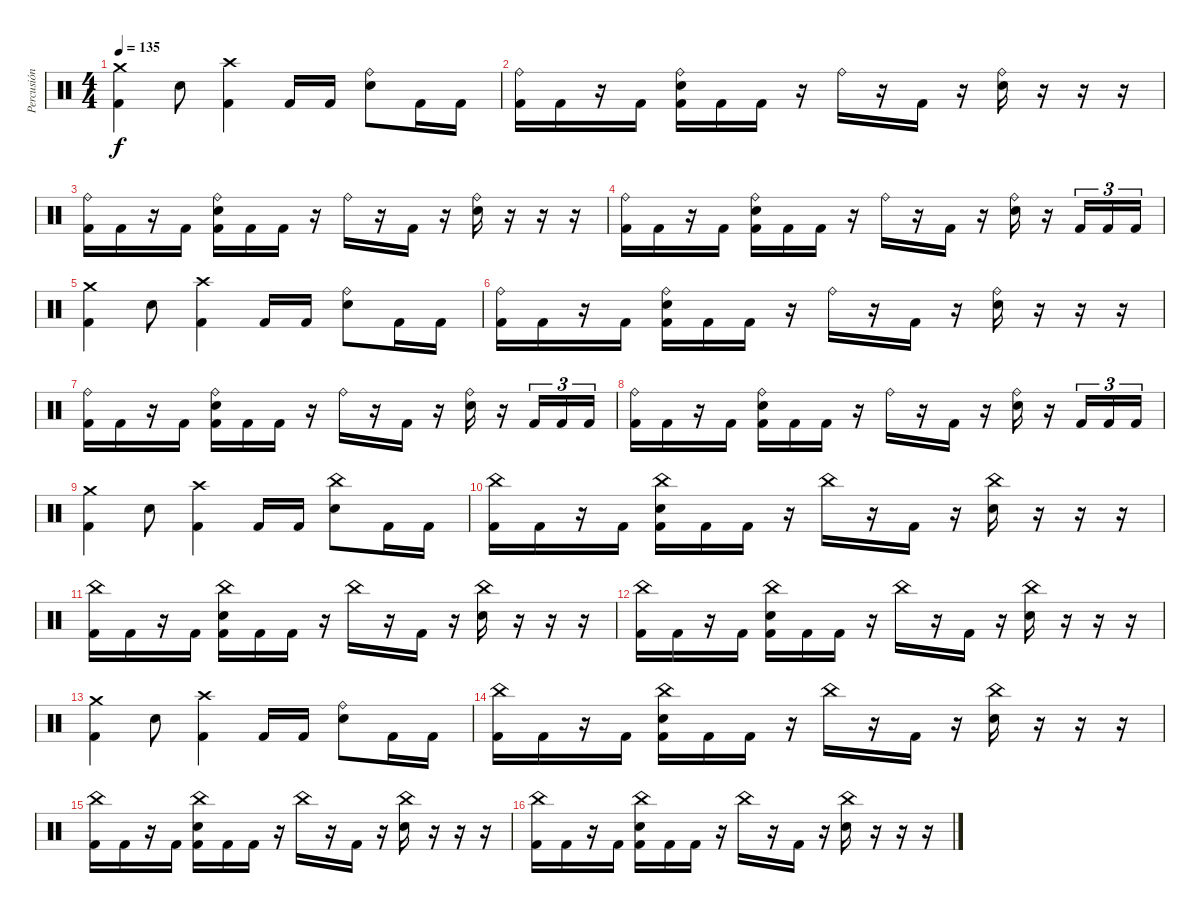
\track ("Percusión" "Percusión") {instrument percussion}
\staff {score}
\articulation defaults
\ts (4 4)
\tempo 135
\clef neutral
\ks c
("Crash medium (hit)" "Kick (hit) 2").4{dy f} "Electric Snare (hit)".8 ("Crash high (hit)" "Kick (hit) 2").4 "Kick (hit) 2".16 "Kick (hit) 2".16 ("Ride (bell)" "Electric Snare (hit)").8 "Kick (hit) 2".16 "Kick (hit) 2".16 |
("Ride (bell)" "Kick (hit) 2").16 "Kick (hit) 2".16 r.16 "Kick (hit) 2".16 ("Ride (bell)" "Electric Snare (hit)" "Kick (hit) 2").16 "Kick (hit) 2".16 "Kick (hit) 2".16 r.16 "Ride (bell)".16 r.16 "Kick (hit) 2".16 r.16 ("Ride (bell)" "Electric Snare (hit)").16 r.16 r.16 r.16 |
("Ride (bell)" "Kick (hit) 2").16 "Kick (hit) 2".16 r.16 "Kick (hit) 2".16 ("Ride (bell)" "Electric Snare (hit)" "Kick (hit) 2").16 "Kick (hit) 2".16 "Kick (hit) 2".16 r.16 "Ride (bell)".16 r.16 "Kick (hit) 2".16 r.16 ("Ride (bell)" "Electric Snare (hit)").16 r.16 r.16 r.16 |
("Ride (bell)" "Kick (hit) 2").16 "Kick (hit) 2".16 r.16 "Kick (hit) 2".16 ("Ride (bell)" "Electric Snare (hit)" "Kick (hit) 2").16 "Kick (hit) 2".16 "Kick (hit) 2".16 r.16 "Ride (bell)".16 r.16 "Kick (hit) 2".16 r.16 ("Ride (bell)" "Electric Snare (hit)").16 r.16 "Kick (hit) 2".16{tu (3 2)} "Kick (hit) 2".16{tu (3 2)} "Kick (hit) 2".16{tu (3 2)} |
("Crash medium (hit)" "Kick (hit) 2").4 "Electric Snare (hit)".8 ("Crash high (hit)" "Kick (hit) 2").4 "Kick (hit) 2".16 "Kick (hit) 2".16 ("Ride (bell)" "Electric Snare (hit)").8 "Kick (hit) 2".16 "Kick (hit) 2".16 |
("Ride (bell)" "Kick (hit) 2").16 "Kick (hit) 2".16 r.16 "Kick (hit) 2".16 ("Ride (bell)" "Electric Snare (hit)" "Kick (hit) 2").16 "Kick (hit) 2".16 "Kick (hit) 2".16 r.16 "Ride (bell)".16 r.16 "Kick (hit) 2".16 r.16 ("Ride (bell)" "Electric Snare (hit)").16 r.16 r.16 r.16 |
("Ride (bell)" "Kick (hit) 2").16 "Kick (hit) 2".16 r.16 "Kick (hit) 2".16 ("Ride (bell)" "Electric Snare (hit)" "Kick (hit) 2").16 "Kick (hit) 2".16 "Kick (hit) 2".16 r.16 "Ride (bell)".16 r.16 "Kick (hit) 2".16 r.16 ("Ride (bell)" "Electric Snare (hit)").16 r.16 "Kick (hit) 2".16{tu (3 2)} "Kick (hit) 2".16{tu (3 2)} "Kick (hit) 2".16{tu (3 2)} |
("Ride (bell)" "Kick (hit) 2").16 "Kick (hit) 2".16 r.16 "Kick (hit) 2".16 ("Ride (bell)" "Electric Snare (hit)" "Kick (hit) 2").16 "Kick (hit) 2".16 "Kick (hit) 2".16 r.16 "Ride (bell)".16 r.16 "Kick (hit) 2".16 r.16 ("Ride (bell)" "Electric Snare (hit)").16 r.16 "Kick (hit) 2".16{tu (3 2)} "Kick (hit) 2".16{tu (3 2)} "Kick (hit) 2".16{tu (3 2)} |
("Crash medium (hit)" "Kick (hit) 2").4 "Electric Snare (hit)".8 ("Crash high (hit)" "Kick (hit) 2").4 "Kick (hit) 2".16 "Kick (hit) 2".16 ("China (hit)" "Electric Snare (hit)").8 "Kick (hit) 2".16 "Kick (hit) 2".16 |
("China (hit)" "Kick (hit) 2").16 "Kick (hit) 2".16 r.16 "Kick (hit) 2".16 ("China (hit)" "Electric Snare (hit)" "Kick (hit) 2").16 "Kick (hit) 2".16 "Kick (hit) 2".16 r.16 "China (hit)".16 r.16 "Kick (hit) 2".16 r.16 ("China (hit)" "Electric Snare (hit)").16 r.16 r.16 r.16 |
("China (hit)" "Kick (hit) 2").16 "Kick (hit) 2".16 r.16 "Kick (hit) 2".16 ("China (hit)" "Electric Snare (hit)" "Kick (hit) 2").16 "Kick (hit) 2".16 "Kick (hit) 2".16 r.16 "China (hit)".16 r.16 "Kick (hit) 2".16 r.16 ("China (hit)" "Electric Snare (hit)").16 r.16 r.16 r.16 |
("China (hit)" "Kick (hit) 2").16 "Kick (hit) 2".16 r.16 "Kick (hit) 2".16 ("China (hit)" "Electric Snare (hit)" "Kick (hit) 2").16 "Kick (hit) 2".16 "Kick (hit) 2".16 r.16 "China (hit)".16 r.16 "Kick (hit) 2".16 r.16 ("China (hit)" "Electric Snare (hit)").16 r.16 r.16 r.16 |
("Crash medium (hit)" "Kick (hit) 2").4 "Electric Snare (hit)".8 ("Crash high (hit)" "Kick (hit) 2").4 "Kick (hit) 2".16 "Kick (hit) 2".16 ("Ride (bell)" "Electric Snare (hit)").8 "Kick (hit) 2".16 "Kick (hit) 2".16 |
("China (hit)" "Kick (hit) 2").16 "Kick (hit) 2".16 r.16 "Kick (hit) 2".16 ("China (hit)" "Electric Snare (hit)" "Kick (hit) 2").16 "Kick (hit) 2".16 "Kick (hit) 2".16 r.16 "China (hit)".16 r.16 "Kick (hit) 2".16 r.16 ("China (hit)" "Electric Snare (hit)").16 r.16 r.16 r.16 |
("China (hit)" "Kick (hit) 2").16 "Kick (hit) 2".16 r.16 "Kick (hit) 2".16 ("China (hit)" "Electric Snare (hit)" "Kick (hit) 2").16 "Kick (hit) 2".16 "Kick (hit) 2".16 r.16 "China (hit)".16 r.16 "Kick (hit) 2".16 r.16 ("China (hit)" "Electric Snare (hit)").16 r.16 r.16 r.16 |
("China (hit)" "Kick (hit) 2").16 "Kick (hit) 2".16 r.16 "Kick (hit) 2".16 ("China (hit)" "Electric Snare (hit)" "Kick (hit) 2").16 "Kick (hit) 2".16 "Kick (hit) 2".16 r.16 "China (hit)".16 r.16 "Kick (hit) 2".16 r.16 ("China (hit)" "Electric Snare (hit)").16 r.16 r.16 r.16
